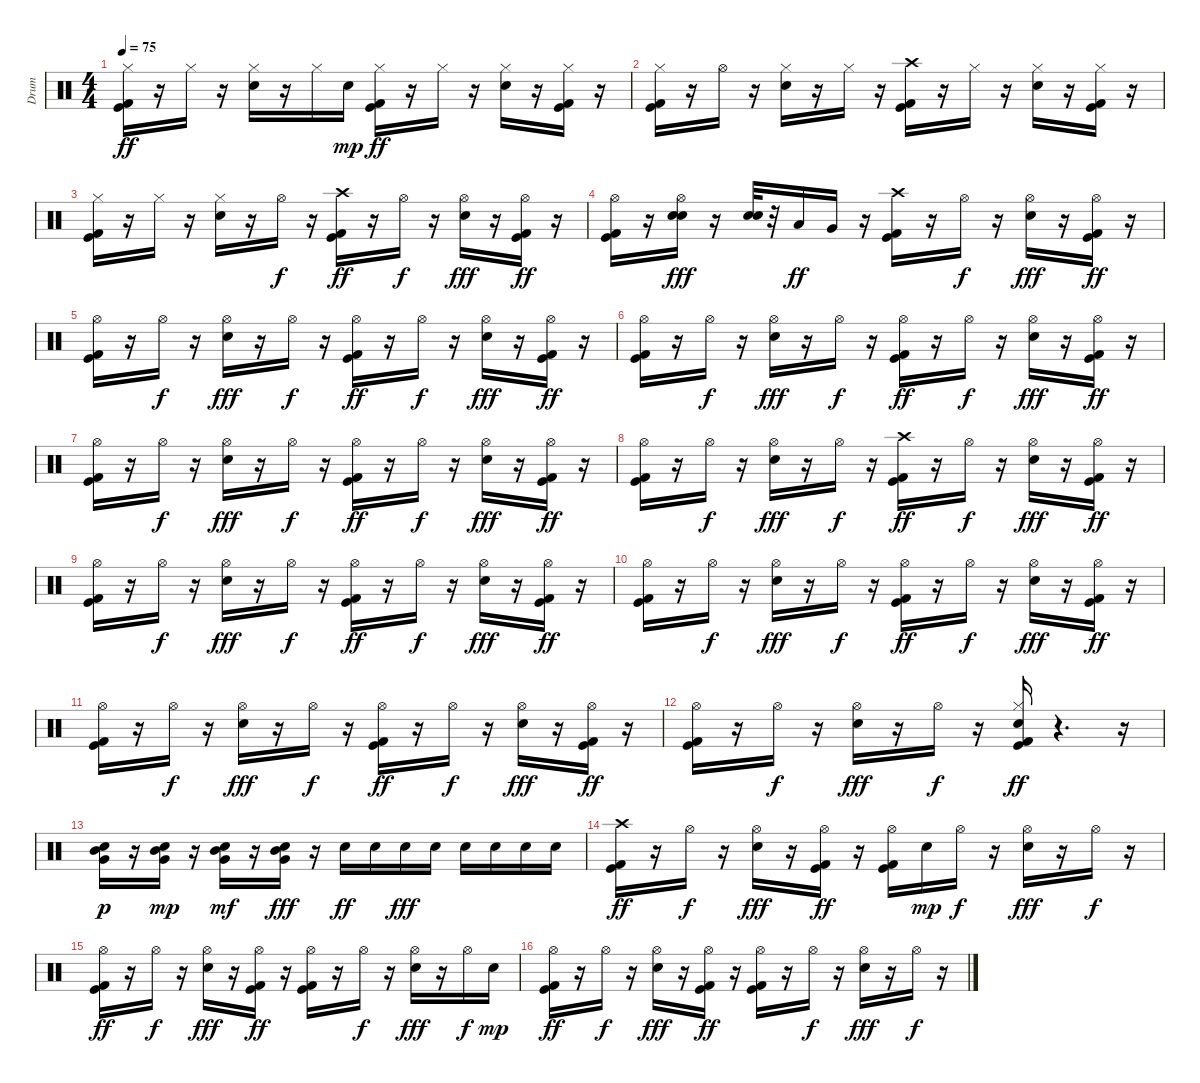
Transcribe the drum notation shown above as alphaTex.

\track ("Drum" "Drum") {instrument percussion}
\staff {score}
\articulation defaults
\ts (4 4)
\tempo 75
\clef neutral
\ks c
("Kick (hit)" "Kick (hit) 2" "Hi-Hat (closed)").16{dy ff} r.16 "Hi-Hat (closed)".16 r.16 ("Electric Snare (hit)" "Hi-Hat (closed)").16 r.16 "Hi-Hat (closed)".16 "Electric Snare (hit)".16{dy mp} ("Kick (hit)" "Kick (hit) 2" "Hi-Hat (closed)").16{dy ff} r.16 "Hi-Hat (closed)".16 r.16 ("Electric Snare (hit)" "Hi-Hat (closed)").16 r.16 ("Kick (hit)" "Kick (hit) 2" "Hi-Hat (closed)").16 r.16 |
("Kick (hit)" "Kick (hit) 2" "Hi-Hat (closed)").16 r.16 "Hi-Hat (open)".16 r.16 ("Electric Snare (hit)" "Hi-Hat (closed)").16 r.16 "Hi-Hat (closed)".16 r.16 ("Crash high (hit)" "Kick (hit)" "Kick (hit) 2").16 r.16 "Hi-Hat (closed)".16 r.16 ("Electric Snare (hit)" "Hi-Hat (closed)").16 r.16 ("Kick (hit)" "Kick (hit) 2" "Hi-Hat (closed)").16 r.16 |
("Kick (hit)" "Kick (hit) 2" "Hi-Hat (closed)").16 r.16 "Hi-Hat (closed)".16 r.16 ("Electric Snare (hit)" "Hi-Hat (closed)").16 r.16 "Hi-Hat (open)".16{dy f} r.16 ("Kick (hit)" "Kick (hit) 2" "Crash high (hit)").16{dy ff} r.16 "Hi-Hat (open)".16{dy f} r.16 ("Electric Snare (hit)" "Hi-Hat (open)").16{dy fff} r.16 ("Kick (hit)" "Kick (hit) 2" "Hi-Hat (open)").16{dy ff} r.16 |
("Kick (hit)" "Kick (hit) 2" "Hi-Hat (open)").16 r.16 ("Hi-Hat (open)" "Electric Snare (hit)" "Electric Snare (hit)").16{dy fff} r.16 ("Electric Snare (hit)" "Electric Snare (hit)").32 r.32 "Low Tom (hit)".16{dy ff} "Very Low Tom (hit)".16 r.16 ("Crash high (hit)" "Kick (hit)" "Kick (hit) 2").16 r.16 "Hi-Hat (open)".16{dy f} r.16 ("Hi-Hat (open)" "Electric Snare (hit)").16{dy fff} r.16 ("Hi-Hat (open)" "Kick (hit)" "Kick (hit) 2").16{dy ff} r.16 |
("Hi-Hat (open)" "Kick (hit)" "Kick (hit) 2").16 r.16 "Hi-Hat (open)".16{dy f} r.16 ("Hi-Hat (open)" "Electric Snare (hit)").16{dy fff} r.16 "Hi-Hat (open)".16{dy f} r.16 ("Hi-Hat (open)" "Kick (hit)" "Kick (hit) 2").16{dy ff} r.16 "Hi-Hat (open)".16{dy f} r.16 ("Hi-Hat (open)" "Electric Snare (hit)").16{dy fff} r.16 ("Hi-Hat (open)" "Kick (hit)" "Kick (hit) 2").16{dy ff} r.16 |
("Hi-Hat (open)" "Kick (hit)" "Kick (hit) 2").16 r.16 "Hi-Hat (open)".16{dy f} r.16 ("Hi-Hat (open)" "Electric Snare (hit)").16{dy fff} r.16 "Hi-Hat (open)".16{dy f} r.16 ("Kick (hit)" "Kick (hit) 2" "Hi-Hat (open)").16{dy ff} r.16 "Hi-Hat (open)".16{dy f} r.16 ("Hi-Hat (open)" "Electric Snare (hit)").16{dy fff} r.16 ("Hi-Hat (open)" "Kick (hit)" "Kick (hit) 2").16{dy ff} r.16 |
("Hi-Hat (open)" "Kick (hit)" "Kick (hit) 2").16 r.16 "Hi-Hat (open)".16{dy f} r.16 ("Hi-Hat (open)" "Electric Snare (hit)").16{dy fff} r.16 "Hi-Hat (open)".16{dy f} r.16 ("Hi-Hat (open)" "Kick (hit)" "Kick (hit) 2").16{dy ff} r.16 "Hi-Hat (open)".16{dy f} r.16 ("Hi-Hat (open)" "Electric Snare (hit)").16{dy fff} r.16 ("Hi-Hat (open)" "Kick (hit)" "Kick (hit) 2").16{dy ff} r.16 |
("Hi-Hat (open)" "Kick (hit)" "Kick (hit) 2").16 r.16 "Hi-Hat (open)".16{dy f} r.16 ("Hi-Hat (open)" "Electric Snare (hit)").16{dy fff} r.16 "Hi-Hat (open)".16{dy f} r.16 ("Crash high (hit)" "Kick (hit)" "Kick (hit) 2").16{dy ff} r.16 "Hi-Hat (open)".16{dy f} r.16 ("Hi-Hat (open)" "Electric Snare (hit)").16{dy fff} r.16 ("Hi-Hat (open)" "Kick (hit)" "Kick (hit) 2").16{dy ff} r.16 |
("Hi-Hat (open)" "Kick (hit)" "Kick (hit) 2").16 r.16 "Hi-Hat (open)".16{dy f} r.16 ("Hi-Hat (open)" "Electric Snare (hit)").16{dy fff} r.16 "Hi-Hat (open)".16{dy f} r.16 ("Hi-Hat (open)" "Kick (hit)" "Kick (hit) 2").16{dy ff} r.16 "Hi-Hat (open)".16{dy f} r.16 ("Hi-Hat (open)" "Electric Snare (hit)").16{dy fff} r.16 ("Hi-Hat (open)" "Kick (hit)" "Kick (hit) 2").16{dy ff} r.16 |
("Hi-Hat (open)" "Kick (hit)" "Kick (hit) 2").16 r.16 "Hi-Hat (open)".16{dy f} r.16 ("Hi-Hat (open)" "Electric Snare (hit)").16{dy fff} r.16 "Hi-Hat (open)".16{dy f} r.16 ("Kick (hit)" "Kick (hit) 2" "Hi-Hat (open)").16{dy ff} r.16 "Hi-Hat (open)".16{dy f} r.16 ("Hi-Hat (open)" "Electric Snare (hit)").16{dy fff} r.16 ("Hi-Hat (open)" "Kick (hit)" "Kick (hit) 2").16{dy ff} r.16 |
("Hi-Hat (open)" "Kick (hit)" "Kick (hit) 2").16 r.16 "Hi-Hat (open)".16{dy f} r.16 ("Hi-Hat (open)" "Electric Snare (hit)").16{dy fff} r.16 "Hi-Hat (open)".16{dy f} r.16 ("Hi-Hat (open)" "Kick (hit)" "Kick (hit) 2").16{dy ff} r.16 "Hi-Hat (open)".16{dy f} r.16 ("Hi-Hat (open)" "Electric Snare (hit)").16{dy fff} r.16 ("Hi-Hat (open)" "Kick (hit)" "Kick (hit) 2").16{dy ff} r.16 |
("Hi-Hat (open)" "Kick (hit)" "Kick (hit) 2").16 r.16 "Hi-Hat (open)".16{dy f} r.16 ("Hi-Hat (open)" "Electric Snare (hit)").16{dy fff} r.16 "Hi-Hat (open)".16{dy f} r.16 ("Electric Snare (hit)" "Hi-Hat (closed)" "Kick (hit)" "Kick (hit) 2").16{dy ff} r.4{d} r.16 |
("Mid Tom (hit)" "Very Low Tom (hit)" "Electric Snare (hit)").16{dy p} r.16 ("Very Low Tom (hit)" "Mid Tom (hit)" "Electric Snare (hit)").16{dy mp} r.16 ("Very Low Tom (hit)" "Mid Tom (hit)" "Electric Snare (hit)").16{dy mf} r.16 ("Very Low Tom (hit)" "Mid Tom (hit)" "Electric Snare (hit)").16{dy fff} r.16 "Electric Snare (hit)".16{dy ff} "Electric Snare (hit)".16 "Electric Snare (hit)".16{dy fff} "Electric Snare (hit)".16 "Electric Snare (hit)".16 "Electric Snare (hit)".16 "Electric Snare (hit)".16 "Electric Snare (hit)".16 |
("Crash high (hit)" "Kick (hit)" "Kick (hit) 2").16{dy ff} r.16 "Hi-Hat (open)".16{dy f} r.16 ("Hi-Hat (open)" "Electric Snare (hit)").16{dy fff} r.16 ("Hi-Hat (open)" "Kick (hit)" "Kick (hit) 2").16{dy ff} r.16 ("Hi-Hat (open)" "Kick (hit)" "Kick (hit) 2").16 "Electric Snare (hit)".16{dy mp} "Hi-Hat (open)".16{dy f} r.16 ("Hi-Hat (open)" "Electric Snare (hit)").16{dy fff} r.16 "Hi-Hat (open)".16{dy f} r.16 |
("Hi-Hat (open)" "Kick (hit)" "Kick (hit) 2").16{dy ff} r.16 "Hi-Hat (open)".16{dy f} r.16 ("Hi-Hat (open)" "Electric Snare (hit)").16{dy fff} r.16 ("Hi-Hat (open)" "Kick (hit)" "Kick (hit) 2").16{dy ff} r.16 ("Hi-Hat (open)" "Kick (hit)" "Kick (hit) 2").16 r.16 "Hi-Hat (open)".16{dy f} r.16 ("Hi-Hat (open)" "Electric Snare (hit)").16{dy fff} r.16 "Hi-Hat (open)".16{dy f} "Electric Snare (hit)".16{dy mp} |
("Kick (hit)" "Kick (hit) 2" "Hi-Hat (open)").16{dy ff} r.16 "Hi-Hat (open)".16{dy f} r.16 ("Hi-Hat (open)" "Electric Snare (hit)").16{dy fff} r.16 ("Hi-Hat (open)" "Kick (hit)" "Kick (hit) 2").16{dy ff} r.16 ("Hi-Hat (open)" "Kick (hit)" "Kick (hit) 2").16 r.16 "Hi-Hat (open)".16{dy f} r.16 ("Hi-Hat (open)" "Electric Snare (hit)").16{dy fff} r.16 "Hi-Hat (open)".16{dy f} r.16
